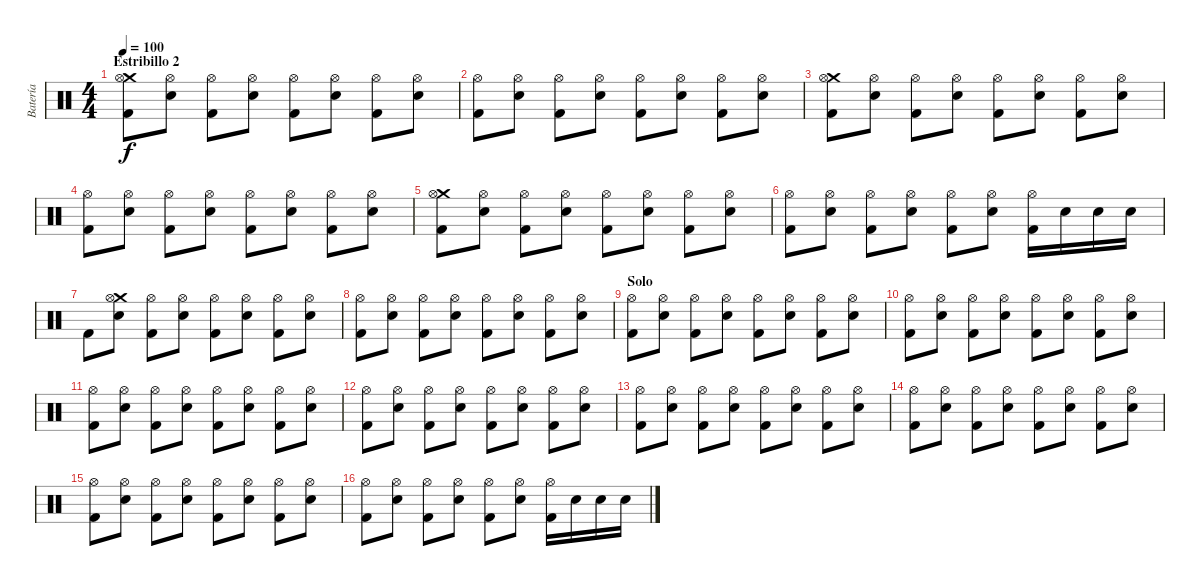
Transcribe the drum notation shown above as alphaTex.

\track ("Batería" "Batería") {instrument percussion}
\staff {score}
\articulation defaults
\ts (4 4)
\section ("" "Estribillo 2")
\tempo 100
\clef neutral
\ks c
("Crash medium (hit)" "Hi-Hat (open)" "Kick (hit) 2").8{dy f} ("Hi-Hat (open)" "Snare (hit) 2").8 ("Hi-Hat (open)" "Kick (hit) 2").8 ("Hi-Hat (open)" "Snare (hit) 2").8 ("Hi-Hat (open)" "Kick (hit) 2").8 ("Hi-Hat (open)" "Snare (hit) 2").8 ("Hi-Hat (open)" "Kick (hit) 2").8 ("Hi-Hat (open)" "Snare (hit) 2").8 |
("Hi-Hat (open)" "Kick (hit) 2").8 ("Hi-Hat (open)" "Snare (hit) 2").8 ("Hi-Hat (open)" "Kick (hit) 2").8 ("Hi-Hat (open)" "Snare (hit) 2").8 ("Hi-Hat (open)" "Kick (hit) 2").8 ("Hi-Hat (open)" "Snare (hit) 2").8 ("Hi-Hat (open)" "Kick (hit) 2").8 ("Hi-Hat (open)" "Snare (hit) 2").8 |
("Crash medium (hit)" "Hi-Hat (open)" "Kick (hit) 2").8 ("Hi-Hat (open)" "Snare (hit) 2").8 ("Hi-Hat (open)" "Kick (hit) 2").8 ("Hi-Hat (open)" "Snare (hit) 2").8 ("Hi-Hat (open)" "Kick (hit) 2").8 ("Hi-Hat (open)" "Snare (hit) 2").8 ("Hi-Hat (open)" "Kick (hit) 2").8 ("Hi-Hat (open)" "Snare (hit) 2").8 |
("Hi-Hat (open)" "Kick (hit) 2").8 ("Hi-Hat (open)" "Snare (hit) 2").8 ("Hi-Hat (open)" "Kick (hit) 2").8 ("Hi-Hat (open)" "Snare (hit) 2").8 ("Hi-Hat (open)" "Kick (hit) 2").8 ("Hi-Hat (open)" "Snare (hit) 2").8 ("Hi-Hat (open)" "Kick (hit) 2").8 ("Hi-Hat (open)" "Snare (hit) 2").8 |
("Crash medium (hit)" "Hi-Hat (open)" "Kick (hit) 2").8 ("Hi-Hat (open)" "Snare (hit) 2").8 ("Hi-Hat (open)" "Kick (hit) 2").8 ("Hi-Hat (open)" "Snare (hit) 2").8 ("Hi-Hat (open)" "Kick (hit) 2").8 ("Hi-Hat (open)" "Snare (hit) 2").8 ("Hi-Hat (open)" "Kick (hit) 2").8 ("Hi-Hat (open)" "Snare (hit) 2").8 |
("Hi-Hat (open)" "Kick (hit) 2").8 ("Hi-Hat (open)" "Snare (hit) 2").8 ("Hi-Hat (open)" "Kick (hit) 2").8 ("Hi-Hat (open)" "Snare (hit) 2").8 ("Hi-Hat (open)" "Kick (hit) 2").8 ("Hi-Hat (open)" "Snare (hit) 2").8 ("Hi-Hat (open)" "Kick (hit) 2").16 "Snare (hit) 2".16 "Snare (hit) 2".16 "Snare (hit) 2".16 |
"Kick (hit) 2".8 ("Crash medium (hit)" "Hi-Hat (open)" "Snare (hit) 2").8 ("Hi-Hat (open)" "Kick (hit) 2").8 ("Hi-Hat (open)" "Snare (hit) 2").8 ("Hi-Hat (open)" "Kick (hit) 2").8 ("Hi-Hat (open)" "Snare (hit) 2").8 ("Hi-Hat (open)" "Kick (hit) 2").8 ("Hi-Hat (open)" "Snare (hit) 2").8 |
("Hi-Hat (open)" "Kick (hit) 2").8 ("Hi-Hat (open)" "Snare (hit) 2").8 ("Hi-Hat (open)" "Kick (hit) 2").8 ("Hi-Hat (open)" "Snare (hit) 2").8 ("Hi-Hat (open)" "Kick (hit) 2").8 ("Hi-Hat (open)" "Snare (hit) 2").8 ("Hi-Hat (open)" "Kick (hit) 2").8 ("Hi-Hat (open)" "Snare (hit) 2").8 |
\section ("" "Solo")
("Hi-Hat (open)" "Kick (hit) 2").8 ("Hi-Hat (open)" "Snare (hit) 2").8 ("Hi-Hat (open)" "Kick (hit) 2").8 ("Hi-Hat (open)" "Snare (hit) 2").8 ("Hi-Hat (open)" "Kick (hit) 2").8 ("Hi-Hat (open)" "Snare (hit) 2").8 ("Hi-Hat (open)" "Kick (hit) 2").8 ("Hi-Hat (open)" "Snare (hit) 2").8 |
("Hi-Hat (open)" "Kick (hit) 2").8 ("Hi-Hat (open)" "Snare (hit) 2").8 ("Hi-Hat (open)" "Kick (hit) 2").8 ("Hi-Hat (open)" "Snare (hit) 2").8 ("Hi-Hat (open)" "Kick (hit) 2").8 ("Hi-Hat (open)" "Snare (hit) 2").8 ("Hi-Hat (open)" "Kick (hit) 2").8 ("Hi-Hat (open)" "Snare (hit) 2").8 |
("Hi-Hat (open)" "Kick (hit) 2").8 ("Hi-Hat (open)" "Snare (hit) 2").8 ("Hi-Hat (open)" "Kick (hit) 2").8 ("Hi-Hat (open)" "Snare (hit) 2").8 ("Hi-Hat (open)" "Kick (hit) 2").8 ("Hi-Hat (open)" "Snare (hit) 2").8 ("Hi-Hat (open)" "Kick (hit) 2").8 ("Hi-Hat (open)" "Snare (hit) 2").8 |
("Hi-Hat (open)" "Kick (hit) 2").8 ("Hi-Hat (open)" "Snare (hit) 2").8 ("Hi-Hat (open)" "Kick (hit) 2").8 ("Hi-Hat (open)" "Snare (hit) 2").8 ("Hi-Hat (open)" "Kick (hit) 2").8 ("Hi-Hat (open)" "Snare (hit) 2").8 ("Hi-Hat (open)" "Kick (hit) 2").8 ("Hi-Hat (open)" "Snare (hit) 2").8 |
("Hi-Hat (open)" "Kick (hit) 2").8 ("Hi-Hat (open)" "Snare (hit) 2").8 ("Hi-Hat (open)" "Kick (hit) 2").8 ("Hi-Hat (open)" "Snare (hit) 2").8 ("Hi-Hat (open)" "Kick (hit) 2").8 ("Hi-Hat (open)" "Snare (hit) 2").8 ("Hi-Hat (open)" "Kick (hit) 2").8 ("Hi-Hat (open)" "Snare (hit) 2").8 |
("Hi-Hat (open)" "Kick (hit) 2").8 ("Hi-Hat (open)" "Snare (hit) 2").8 ("Hi-Hat (open)" "Kick (hit) 2").8 ("Hi-Hat (open)" "Snare (hit) 2").8 ("Hi-Hat (open)" "Kick (hit) 2").8 ("Hi-Hat (open)" "Snare (hit) 2").8 ("Hi-Hat (open)" "Kick (hit) 2").8 ("Hi-Hat (open)" "Snare (hit) 2").8 |
("Hi-Hat (open)" "Kick (hit) 2").8 ("Hi-Hat (open)" "Snare (hit) 2").8 ("Hi-Hat (open)" "Kick (hit) 2").8 ("Hi-Hat (open)" "Snare (hit) 2").8 ("Hi-Hat (open)" "Kick (hit) 2").8 ("Hi-Hat (open)" "Snare (hit) 2").8 ("Hi-Hat (open)" "Kick (hit) 2").8 ("Hi-Hat (open)" "Snare (hit) 2").8 |
("Hi-Hat (open)" "Kick (hit) 2").8 ("Hi-Hat (open)" "Snare (hit) 2").8 ("Hi-Hat (open)" "Kick (hit) 2").8 ("Hi-Hat (open)" "Snare (hit) 2").8 ("Hi-Hat (open)" "Kick (hit) 2").8 ("Hi-Hat (open)" "Snare (hit) 2").8 ("Hi-Hat (open)" "Kick (hit) 2").16 "Snare (hit) 2".16 "Snare (hit) 2".16 "Snare (hit) 2".16
